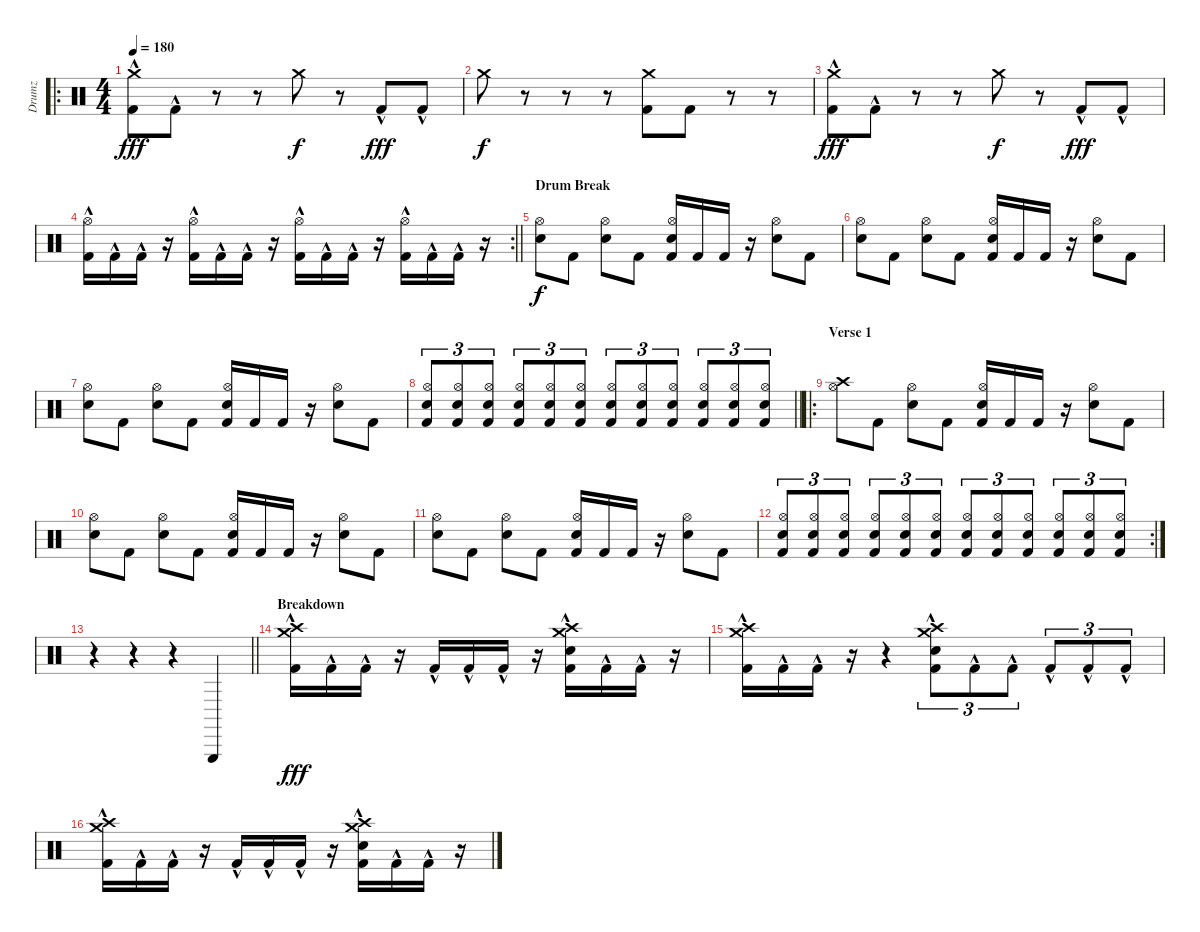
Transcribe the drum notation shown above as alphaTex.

\track ("Drumz" "Drumz") {instrument percussion}
\staff {score}
\articulation defaults
\ro
\ts (4 4)
\tempo 180
\clef neutral
\ks c
("Crash medium (hit)" "Kick (hit) 2"{hac}).8{dy fff} "Kick (hit) 2"{hac}.8 r.8 r.8 "Crash medium (hit)".8{dy f} r.8 "Kick (hit) 2"{hac}.8{dy fff} "Kick (hit) 2"{hac}.8 |
"Crash medium (hit)".8{dy f} r.8 r.8 r.8 ("Crash medium (hit)" "Kick (hit) 2").8 "Kick (hit) 2".8 r.8 r.8 |
("Crash medium (hit)" "Kick (hit) 2"{hac}).8{dy fff} "Kick (hit) 2"{hac}.8 r.8 r.8 "Crash medium (hit)".8{dy f} r.8 "Kick (hit) 2"{hac}.8{dy fff} "Kick (hit) 2"{hac}.8 |
\rc 2
\barLineRight lightlight
("Hi-Hat (open)" "Kick (hit) 2"{hac}).16 "Kick (hit) 2"{hac}.16 "Kick (hit) 2"{hac}.16 r.16 ("Hi-Hat (open)" "Kick (hit) 2"{hac}).16 "Kick (hit) 2"{hac}.16 "Kick (hit) 2"{hac}.16 r.16 ("Hi-Hat (open)" "Kick (hit) 2"{hac}).16 "Kick (hit) 2"{hac}.16 "Kick (hit) 2"{hac}.16 r.16 ("Hi-Hat (open)" "Kick (hit) 2"{hac}).16 "Kick (hit) 2"{hac}.16 "Kick (hit) 2"{hac}.16 r.16 |
\section ("" "Drum Break")
("Electric Snare (hit)" "Hi-Hat (open)").8{dy f} "Kick (hit) 2".8 ("Electric Snare (hit)" "Hi-Hat (open)").8 "Kick (hit) 2".8 ("Electric Snare (hit)" "Hi-Hat (open)" "Kick (hit) 2").16 "Kick (hit) 2".16 "Kick (hit) 2".16 r.16 ("Electric Snare (hit)" "Hi-Hat (open)").8 "Kick (hit) 2".8 |
("Electric Snare (hit)" "Hi-Hat (open)").8 "Kick (hit) 2".8 ("Electric Snare (hit)" "Hi-Hat (open)").8 "Kick (hit) 2".8 ("Electric Snare (hit)" "Hi-Hat (open)" "Kick (hit) 2").16 "Kick (hit) 2".16 "Kick (hit) 2".16 r.16 ("Electric Snare (hit)" "Hi-Hat (open)").8 "Kick (hit) 2".8 |
("Electric Snare (hit)" "Hi-Hat (open)").8 "Kick (hit) 2".8 ("Electric Snare (hit)" "Hi-Hat (open)").8 "Kick (hit) 2".8 ("Electric Snare (hit)" "Hi-Hat (open)" "Kick (hit) 2").16 "Kick (hit) 2".16 "Kick (hit) 2".16 r.16 ("Electric Snare (hit)" "Hi-Hat (open)").8 "Kick (hit) 2".8 |
\barLineRight lightlight
("Electric Snare (hit)" "Hi-Hat (open)" "Kick (hit) 2").8{tu (3 2)} ("Electric Snare (hit)" "Hi-Hat (open)" "Kick (hit) 2").8{tu (3 2)} ("Electric Snare (hit)" "Hi-Hat (open)" "Kick (hit) 2").8{tu (3 2)} ("Electric Snare (hit)" "Hi-Hat (open)" "Kick (hit) 2").8{tu (3 2)} ("Electric Snare (hit)" "Hi-Hat (open)" "Kick (hit) 2").8{tu (3 2)} ("Electric Snare (hit)" "Hi-Hat (open)" "Kick (hit) 2").8{tu (3 2)} ("Electric Snare (hit)" "Hi-Hat (open)" "Kick (hit) 2").8{tu (3 2)} ("Electric Snare (hit)" "Hi-Hat (open)" "Kick (hit) 2").8{tu (3 2)} ("Electric Snare (hit)" "Hi-Hat (open)" "Kick (hit) 2").8{tu (3 2)} ("Electric Snare (hit)" "Hi-Hat (open)" "Kick (hit) 2").8{tu (3 2)} ("Electric Snare (hit)" "Hi-Hat (open)" "Kick (hit) 2").8{tu (3 2)} ("Electric Snare (hit)" "Hi-Hat (open)" "Kick (hit) 2").8{tu (3 2)} |
\ro
\section ("" "Verse 1")
("Crash high (hit)" "Hi-Hat (open)").8 "Kick (hit) 2".8 ("Electric Snare (hit)" "Hi-Hat (open)").8 "Kick (hit) 2".8 ("Electric Snare (hit)" "Hi-Hat (open)" "Kick (hit) 2").16 "Kick (hit) 2".16 "Kick (hit) 2".16 r.16 ("Electric Snare (hit)" "Hi-Hat (open)").8 "Kick (hit) 2".8 |
("Electric Snare (hit)" "Hi-Hat (open)").8 "Kick (hit) 2".8 ("Electric Snare (hit)" "Hi-Hat (open)").8 "Kick (hit) 2".8 ("Electric Snare (hit)" "Hi-Hat (open)" "Kick (hit) 2").16 "Kick (hit) 2".16 "Kick (hit) 2".16 r.16 ("Electric Snare (hit)" "Hi-Hat (open)").8 "Kick (hit) 2".8 |
("Electric Snare (hit)" "Hi-Hat (open)").8 "Kick (hit) 2".8 ("Electric Snare (hit)" "Hi-Hat (open)").8 "Kick (hit) 2".8 ("Electric Snare (hit)" "Hi-Hat (open)" "Kick (hit) 2").16 "Kick (hit) 2".16 "Kick (hit) 2".16 r.16 ("Electric Snare (hit)" "Hi-Hat (open)").8 "Kick (hit) 2".8 |
\rc 2
("Electric Snare (hit)" "Hi-Hat (open)" "Kick (hit) 2").8{tu (3 2)} ("Electric Snare (hit)" "Hi-Hat (open)" "Kick (hit) 2").8{tu (3 2)} ("Electric Snare (hit)" "Hi-Hat (open)" "Kick (hit) 2").8{tu (3 2)} ("Electric Snare (hit)" "Hi-Hat (open)" "Kick (hit) 2").8{tu (3 2)} ("Electric Snare (hit)" "Hi-Hat (open)" "Kick (hit) 2").8{tu (3 2)} ("Electric Snare (hit)" "Hi-Hat (open)" "Kick (hit) 2").8{tu (3 2)} ("Electric Snare (hit)" "Hi-Hat (open)" "Kick (hit) 2").8{tu (3 2)} ("Electric Snare (hit)" "Hi-Hat (open)" "Kick (hit) 2").8{tu (3 2)} ("Electric Snare (hit)" "Hi-Hat (open)" "Kick (hit) 2").8{tu (3 2)} ("Electric Snare (hit)" "Hi-Hat (open)" "Kick (hit) 2").8{tu (3 2)} ("Electric Snare (hit)" "Hi-Hat (open)" "Kick (hit) 2").8{tu (3 2)} ("Electric Snare (hit)" "Hi-Hat (open)" "Kick (hit) 2").8{tu (3 2)} |
\barLineRight lightlight
r.4 r.4 r.4 "Triangle (hit)".4 |
\section ("" "Breakdown")
("Crash high (hit)" "Crash medium (hit)" "Kick (hit) 2"{hac}).16{dy fff} "Kick (hit) 2"{hac}.16 "Kick (hit) 2"{hac}.16 r.16 "Kick (hit) 2"{hac}.16 "Kick (hit) 2"{hac}.16 "Kick (hit) 2"{hac}.16 r.16 ("Snare (hit) 2" "Crash high (hit)" "Crash medium (hit)" "Kick (hit) 2"{hac}).16 "Kick (hit) 2"{hac}.16 "Kick (hit) 2"{hac}.16 r.16 |
("Crash high (hit)" "Crash medium (hit)" "Kick (hit) 2"{hac}).16 "Kick (hit) 2"{hac}.16 "Kick (hit) 2"{hac}.16 r.16 r.4 ("Snare (hit) 2" "Crash high (hit)" "Crash medium (hit)" "Kick (hit) 2"{hac}).8{tu (3 2)} "Kick (hit) 2"{hac}.8{tu (3 2)} "Kick (hit) 2"{hac}.8{tu (3 2)} "Kick (hit) 2"{hac}.8{tu (3 2)} "Kick (hit) 2"{hac}.8{tu (3 2)} "Kick (hit) 2"{hac}.8{tu (3 2)} |
("Crash high (hit)" "Crash medium (hit)" "Kick (hit) 2"{hac}).16 "Kick (hit) 2"{hac}.16 "Kick (hit) 2"{hac}.16 r.16 "Kick (hit) 2"{hac}.16 "Kick (hit) 2"{hac}.16 "Kick (hit) 2"{hac}.16 r.16 ("Snare (hit) 2" "Crash high (hit)" "Crash medium (hit)" "Kick (hit) 2"{hac}).16 "Kick (hit) 2"{hac}.16 "Kick (hit) 2"{hac}.16 r.16
